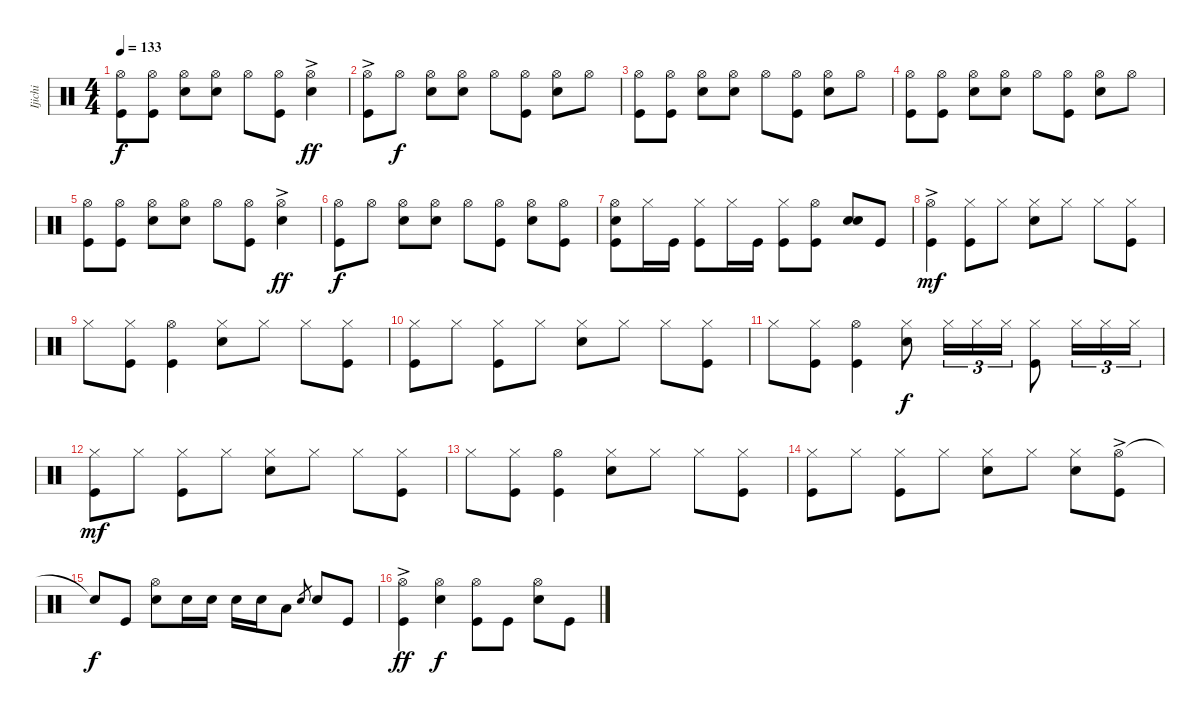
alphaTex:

\track ("Ijichi" "Ijichi") {instrument percussion}
\staff {score}
\articulation defaults
\ts (4 4)
\tempo 133
\clef neutral
\ks c
("Hi-Hat (open)" "Kick (hit)").8{dy f} ("Hi-Hat (open)" "Kick (hit)").8 ("Hi-Hat (open)" "Snare (hit) 2").8 ("Hi-Hat (open)" "Snare (hit) 2").8 "Hi-Hat (open)".8 ("Hi-Hat (open)" "Kick (hit)").8 ("Hi-Hat (open)"{ac} "Snare (hit) 2").4{dy ff} |
("Hi-Hat (open)"{ac} "Kick (hit)").8 "Hi-Hat (open)".8{dy f} ("Hi-Hat (open)" "Snare (hit) 2").8 ("Hi-Hat (open)" "Snare (hit) 2").8 "Hi-Hat (open)".8 ("Hi-Hat (open)" "Kick (hit)").8 ("Hi-Hat (open)" "Snare (hit) 2").8 "Hi-Hat (open)".8 |
("Hi-Hat (open)" "Kick (hit)").8 ("Hi-Hat (open)" "Kick (hit)").8 ("Hi-Hat (open)" "Snare (hit) 2").8 ("Hi-Hat (open)" "Snare (hit) 2").8 "Hi-Hat (open)".8 ("Hi-Hat (open)" "Kick (hit)").8 ("Hi-Hat (open)" "Snare (hit) 2").8 "Hi-Hat (open)".8 |
("Hi-Hat (open)" "Kick (hit)").8 ("Hi-Hat (open)" "Kick (hit)").8 ("Hi-Hat (open)" "Snare (hit) 2").8 ("Hi-Hat (open)" "Snare (hit) 2").8 "Hi-Hat (open)".8 ("Hi-Hat (open)" "Kick (hit)").8 ("Hi-Hat (open)" "Snare (hit) 2").8 "Hi-Hat (open)".8 |
("Hi-Hat (open)" "Kick (hit)").8 ("Hi-Hat (open)" "Kick (hit)").8 ("Hi-Hat (open)" "Snare (hit) 2").8 ("Hi-Hat (open)" "Snare (hit) 2").8 "Hi-Hat (open)".8 ("Hi-Hat (open)" "Kick (hit)").8 ("Hi-Hat (open)"{ac} "Snare (hit) 2").4{dy ff} |
("Hi-Hat (open)" "Kick (hit)").8{dy f} "Hi-Hat (open)".8 ("Hi-Hat (open)" "Snare (hit) 2").8 ("Hi-Hat (open)" "Snare (hit) 2").8 "Hi-Hat (open)".8 ("Hi-Hat (open)" "Kick (hit)").8 ("Hi-Hat (open)" "Snare (hit) 2").8 ("Hi-Hat (open)" "Kick (hit)").8 |
("Hi-Hat (open)" "Snare (hit) 2" "Kick (hit)").8 "Hi-Hat (closed)".16 "Kick (hit)".16 ("Hi-Hat (closed)" "Kick (hit)").8 "Hi-Hat (closed)".16 "Kick (hit)".16 ("Hi-Hat (closed)" "Kick (hit)").8 ("Hi-Hat (open)" "Kick (hit)").8 ("Snare (hit) 2" "Snare (hit) 2").8 "Kick (hit)".8 |
("Hi-Hat (open)"{ac} "Kick (hit)").4{dy mf} ("Hi-Hat (closed)" "Kick (hit)").8 "Hi-Hat (closed)".8 ("Hi-Hat (closed)" "Snare (hit) 2").8 "Hi-Hat (closed)".8 "Hi-Hat (closed)".8 ("Hi-Hat (closed)" "Kick (hit)").8 |
"Hi-Hat (closed)".8 ("Hi-Hat (closed)" "Kick (hit)").8 ("Hi-Hat (open)" "Kick (hit)").4 ("Hi-Hat (closed)" "Snare (hit) 2").8 "Hi-Hat (closed)".8 "Hi-Hat (closed)".8 ("Hi-Hat (closed)" "Kick (hit)").8 |
("Hi-Hat (closed)" "Kick (hit)").8 "Hi-Hat (closed)".8 ("Hi-Hat (closed)" "Kick (hit)").8 "Hi-Hat (closed)".8 ("Hi-Hat (closed)" "Snare (hit) 2").8 "Hi-Hat (closed)".8 "Hi-Hat (closed)".8 ("Hi-Hat (closed)" "Kick (hit)").8 |
"Hi-Hat (closed)".8 ("Hi-Hat (closed)" "Kick (hit)").8 ("Hi-Hat (open)" "Kick (hit)").4 ("Hi-Hat (closed)" "Snare (hit) 2").8{dy f} "Hi-Hat (closed)".16{tu (3 2)} "Hi-Hat (closed)".16{tu (3 2)} "Hi-Hat (closed)".16{tu (3 2)} ("Hi-Hat (closed)" "Kick (hit)").8 "Hi-Hat (closed)".16{tu (3 2)} "Hi-Hat (closed)".16{tu (3 2)} "Hi-Hat (closed)".16{tu (3 2)} |
("Hi-Hat (closed)" "Kick (hit)").8{dy mf} "Hi-Hat (closed)".8 ("Hi-Hat (closed)" "Kick (hit)").8 "Hi-Hat (closed)".8 ("Hi-Hat (closed)" "Snare (hit) 2").8 "Hi-Hat (closed)".8 "Hi-Hat (closed)".8 ("Hi-Hat (closed)" "Kick (hit)").8 |
"Hi-Hat (closed)".8 ("Hi-Hat (closed)" "Kick (hit)").8 ("Hi-Hat (open)" "Kick (hit)").4 ("Hi-Hat (closed)" "Snare (hit) 2").8 "Hi-Hat (closed)".8 "Hi-Hat (closed)".8 ("Hi-Hat (closed)" "Kick (hit)").8 |
("Hi-Hat (closed)" "Kick (hit)").8 "Hi-Hat (closed)".8 ("Hi-Hat (closed)" "Kick (hit)").8 "Hi-Hat (closed)".8 ("Hi-Hat (closed)" "Snare (hit) 2").8 "Hi-Hat (closed)".8 ("Hi-Hat (closed)" "Snare (hit) 2").8 ("Hi-Hat (open)"{ac} "Kick (hit)").8 |
"Snare (hit)"{t}.8{dy f} "Kick (hit)".8 ("Hi-Hat (open)" "Snare (hit) 2").8 "Snare (hit) 2".16 "Snare (hit) 2".16 "Snare (hit) 2".16 "Snare (hit) 2".16 "Low Tom (hit)".8 "Snare (hit) 2".8{gr} "Snare (hit) 2".8 "Kick (hit)".8 |
("Hi-Hat (open)"{ac} "Kick (hit)").4{dy ff} ("Hi-Hat (open)" "Snare (hit) 2").4{dy f} ("Hi-Hat (open)" "Kick (hit)").8 "Kick (hit)".8 ("Hi-Hat (open)" "Snare (hit) 2").8 "Kick (hit)".8
